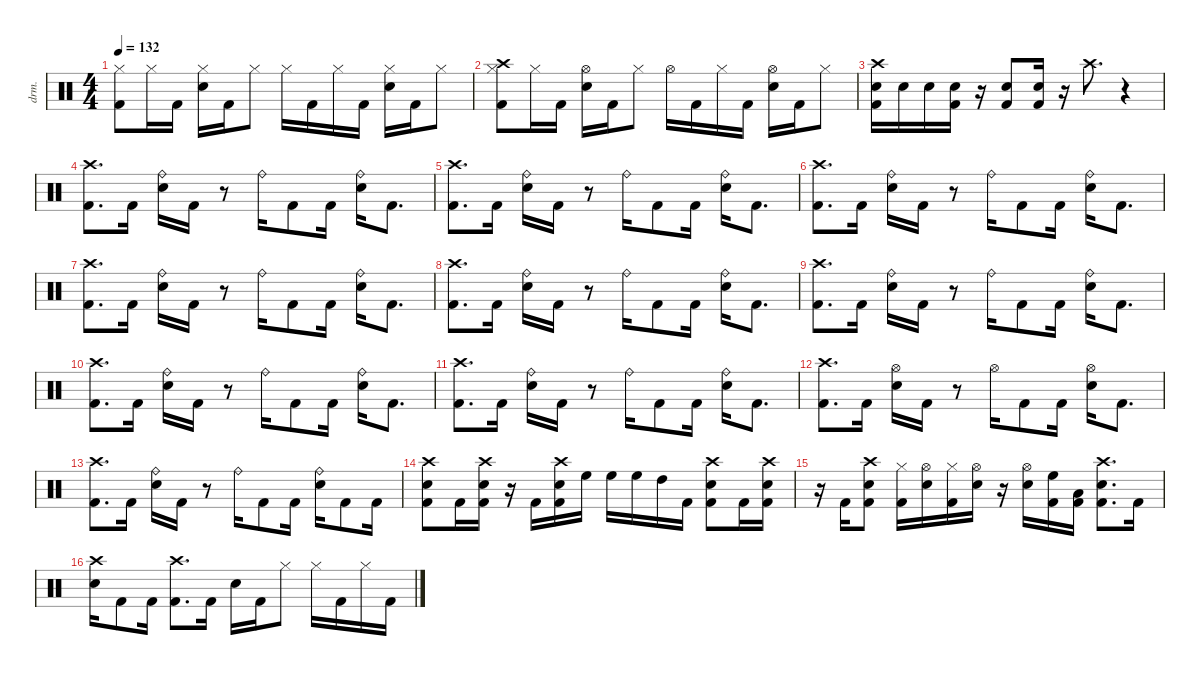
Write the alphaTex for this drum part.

\defaultSystemsLayout 4
\hideDynamics
\bracketExtendMode nobrackets
\track ("drums" "drm.") {instrument percussion}
\staff {score}
\articulation defaults
\ts (4 4)
\tempo 132
\clef neutral
\ks c
("Kick (hit) 2" "Hi-Hat (closed)").8{dy fff} "Hi-Hat (closed)".16 "Kick (hit) 2".16 ("Snare (hit) 2" "Hi-Hat (closed)").16 "Kick (hit) 2".16 "Hi-Hat (closed)".8 "Hi-Hat (closed)".16 "Kick (hit) 2".16 "Hi-Hat (closed)".16 "Kick (hit) 2".16 ("Snare (hit) 2" "Hi-Hat (closed)").16 "Kick (hit) 2".16 "Hi-Hat (closed)".8 |
("Kick (hit) 2" "Crash high (hit)" "Hi-Hat (closed)").8 "Hi-Hat (closed)".16 "Kick (hit) 2".16 ("Hi-Hat (open)" "Snare (hit) 2").16 "Kick (hit) 2".16 "Hi-Hat (closed)".8 "Hi-Hat (open)".16 "Kick (hit) 2".16 "Hi-Hat (closed)".16 "Kick (hit) 2".16 ("Snare (hit) 2" "Hi-Hat (open)").16 "Kick (hit) 2".16 "Hi-Hat (closed)".8 |
("Kick (hit) 2" "Snare (hit) 2" "Crash high (hit)").16 "Snare (hit) 2".16 "Snare (hit) 2".16 ("Kick (hit) 2" "Snare (hit) 2").16 r.16 ("Kick (hit) 2" "Snare (hit) 2").8 ("Kick (hit) 2" "Snare (hit) 2").16 r.16 "Crash high (hit)".8{d} r.4 |
("Kick (hit) 2" "Crash high (hit)").8{d} "Kick (hit) 2".16 ("Snare (hit) 2" "Ride (bell)").16 "Kick (hit) 2".16 r.8 "Ride (bell)".16 "Kick (hit) 2".8 "Kick (hit) 2".16 ("Snare (hit) 2" "Ride (bell)").16 "Kick (hit) 2".8{d} |
("Kick (hit) 2" "Crash high (hit)").8{d} "Kick (hit) 2".16 ("Snare (hit) 2" "Ride (bell)").16 "Kick (hit) 2".16 r.8 "Ride (bell)".16 "Kick (hit) 2".8 "Kick (hit) 2".16 ("Snare (hit) 2" "Ride (bell)").16 "Kick (hit) 2".8{d} |
("Kick (hit) 2" "Crash high (hit)").8{d} "Kick (hit) 2".16 ("Snare (hit) 2" "Ride (bell)").16 "Kick (hit) 2".16 r.8 "Ride (bell)".16 "Kick (hit) 2".8 "Kick (hit) 2".16 ("Snare (hit) 2" "Ride (bell)").16 "Kick (hit) 2".8{d} |
("Kick (hit) 2" "Crash high (hit)").8{d} "Kick (hit) 2".16 ("Snare (hit) 2" "Ride (bell)").16 "Kick (hit) 2".16 r.8 "Ride (bell)".16 "Kick (hit) 2".8 "Kick (hit) 2".16 ("Snare (hit) 2" "Ride (bell)").16 "Kick (hit) 2".8{d} |
("Kick (hit) 2" "Crash high (hit)").8{d} "Kick (hit) 2".16 ("Snare (hit) 2" "Ride (bell)").16 "Kick (hit) 2".16 r.8 "Ride (bell)".16 "Kick (hit) 2".8 "Kick (hit) 2".16 ("Snare (hit) 2" "Ride (bell)").16 "Kick (hit) 2".8{d} |
("Kick (hit) 2" "Crash high (hit)").8{d} "Kick (hit) 2".16 ("Snare (hit) 2" "Ride (bell)").16 "Kick (hit) 2".16 r.8 "Ride (bell)".16 "Kick (hit) 2".8 "Kick (hit) 2".16 ("Snare (hit) 2" "Ride (bell)").16 "Kick (hit) 2".8{d} |
("Kick (hit) 2" "Crash high (hit)").8{d} "Kick (hit) 2".16 ("Snare (hit) 2" "Ride (bell)").16 "Kick (hit) 2".16 r.8 "Ride (bell)".16 "Kick (hit) 2".8 "Kick (hit) 2".16 ("Snare (hit) 2" "Ride (bell)").16 "Kick (hit) 2".8{d} |
("Kick (hit) 2" "Crash high (hit)").8{d} "Kick (hit) 2".16 ("Snare (hit) 2" "Ride (bell)").16 "Kick (hit) 2".16 r.8 "Ride (bell)".16 "Kick (hit) 2".8 "Kick (hit) 2".16 ("Snare (hit) 2" "Ride (bell)").16 "Kick (hit) 2".8{d} |
("Kick (hit) 2" "Crash high (hit)").8{d} "Kick (hit) 2".16 ("Snare (hit) 2" "Hi-Hat (open)").16 "Kick (hit) 2".16 r.8 "Hi-Hat (open)".16 "Kick (hit) 2".8 "Kick (hit) 2".16 ("Snare (hit) 2" "Hi-Hat (open)").16 "Kick (hit) 2".8{d} |
("Kick (hit) 2" "Crash high (hit)").8{d} "Kick (hit) 2".16 ("Snare (hit) 2" "Ride (bell)").16 "Kick (hit) 2".16 r.8 "Ride (bell)".16 "Kick (hit) 2".8 "Kick (hit) 2".16 ("Snare (hit) 2" "Ride (bell)").16 "Kick (hit) 2".8 "Kick (hit) 2".16 |
("Kick (hit) 2" "Snare (hit) 2" "Crash high (hit)").8 "Kick (hit) 2".16 ("Kick (hit) 2" "Snare (hit) 2" "Crash high (hit)").16 r.16 "Kick (hit) 2".16 ("Kick (hit) 2" "Snare (hit) 2" "Crash high (hit)").16 "High Floor Tom (hit)".16 "High Floor Tom (hit)".16 "High Floor Tom (hit)".16 "High Tom (hit)".16 "Kick (hit) 2".16 ("Kick (hit) 2" "Snare (hit) 2" "Crash high (hit)").8 "Kick (hit) 2".16 ("Kick (hit) 2" "Snare (hit) 2" "Crash high (hit)").16 |
r.16 "Kick (hit) 2".16 ("Kick (hit) 2" "Snare (hit) 2" "Crash high (hit)").8 ("Kick (hit) 2" "Hi-Hat (closed)").16 ("Snare (hit) 2" "Hi-Hat (open)").16 ("Kick (hit) 2" "Hi-Hat (closed)").16 ("Snare (hit) 2" "Hi-Hat (open)").16 r.16 ("Snare (hit) 2" "Hi-Hat (open)").16 ("Kick (hit) 2" "High Floor Tom (hit)").16 ("Kick (hit) 2" "Low Tom (hit)").16 ("Kick (hit) 2" "Snare (hit) 2" "Crash high (hit)").8{d} "Kick (hit) 2".16 |
("Snare (hit) 2" "Crash high (hit)").16 "Kick (hit) 2".8 "Kick (hit) 2".16 ("Kick (hit) 2" "Crash high (hit)").8{d} "Kick (hit) 2".16 "Snare (hit) 2".16 "Kick (hit) 2".16 "Hi-Hat (closed)".8 "Hi-Hat (closed)".16 "Kick (hit) 2".16 "Hi-Hat (closed)".16 "Kick (hit) 2".16
